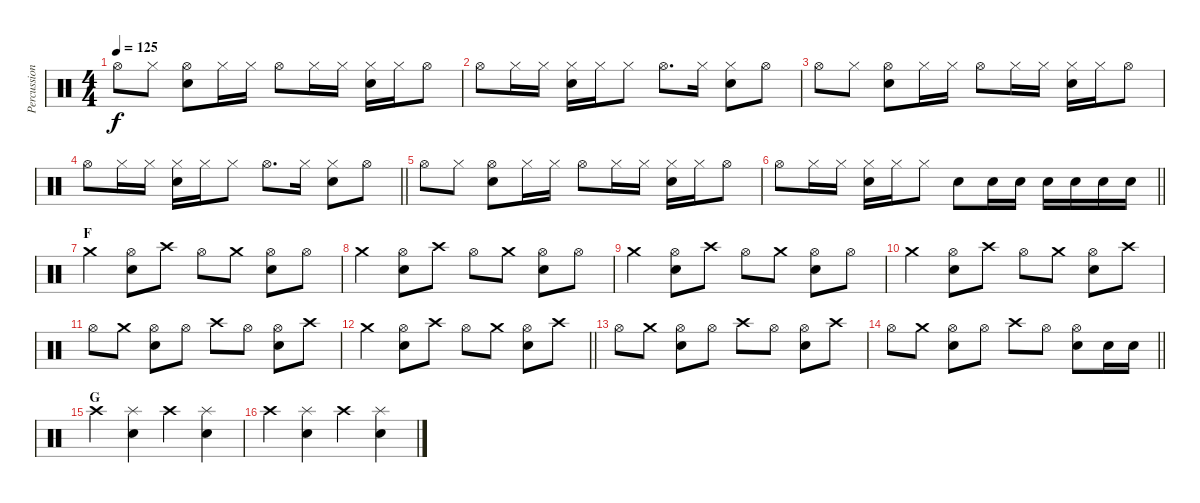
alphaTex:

\track ("Percussion" "Percussion") {instrument percussion}
\staff {score}
\articulation defaults
\ts (4 4)
\tempo 125
\clef neutral
\ks c "Hi-Hat (open)".8{dy f} "Hi-Hat (closed)".8
("Hi-Hat (open)" "Snare (hit) 2").8 "Hi-Hat (closed)".16 "Hi-Hat (closed)".16 "Hi-Hat (open)".8 "Hi-Hat (closed)".16 "Hi-Hat (closed)".16 ("Hi-Hat (closed)" "Snare (hit) 2").16 "Hi-Hat (closed)".16 "Hi-Hat (open)".8 |
"Hi-Hat (open)".8 "Hi-Hat (closed)".16 "Hi-Hat (closed)".16 ("Hi-Hat (closed)" "Snare (hit) 2").16 "Hi-Hat (closed)".16 "Hi-Hat (closed)".8 "Hi-Hat (open)".8{d} "Hi-Hat (closed)".16 ("Hi-Hat (closed)" "Snare (hit) 2").8 "Hi-Hat (open)".8 |
"Hi-Hat (open)".8 "Hi-Hat (closed)".8 ("Hi-Hat (open)" "Snare (hit) 2").8 "Hi-Hat (closed)".16 "Hi-Hat (closed)".16 "Hi-Hat (open)".8 "Hi-Hat (closed)".16 "Hi-Hat (closed)".16 ("Hi-Hat (closed)" "Snare (hit) 2").16 "Hi-Hat (closed)".16 "Hi-Hat (open)".8 |
\barLineRight lightlight "Hi-Hat (open)".8 "Hi-Hat (closed)".16 "Hi-Hat (closed)".16
("Hi-Hat (closed)" "Snare (hit) 2").16 "Hi-Hat (closed)".16 "Hi-Hat (closed)".8 "Hi-Hat (open)".8{d} "Hi-Hat (closed)".16 ("Hi-Hat (closed)" "Snare (hit) 2").8 "Hi-Hat (open)".8 |
"Hi-Hat (open)".8 "Hi-Hat (closed)".8 ("Hi-Hat (open)" "Snare (hit) 2").8 "Hi-Hat (closed)".16 "Hi-Hat (closed)".16 "Hi-Hat (open)".8 "Hi-Hat (closed)".16 "Hi-Hat (closed)".16 ("Hi-Hat (closed)" "Snare (hit) 2").16 "Hi-Hat (closed)".16 "Hi-Hat (open)".8 |
\barLineRight lightlight "Hi-Hat (open)".8 "Hi-Hat (closed)".16 "Hi-Hat (closed)".16
("Hi-Hat (closed)" "Snare (hit) 2").16 "Hi-Hat (closed)".16 "Hi-Hat (closed)".8 "Snare (hit) 2".8 "Snare (hit) 2".16 "Snare (hit) 2".16 "Snare (hit) 2".16 "Snare (hit) 2".16 "Snare (hit) 2".16 "Snare (hit) 2".16 |
\section ("" "F")
"Crash medium (hit)".4 ("Hi-Hat (open)" "Snare (hit) 2").8 "Crash high (hit)".8 "Hi-Hat (open)".8 "Crash medium (hit)".8 ("Hi-Hat (open)" "Snare (hit) 2").8 "Hi-Hat (open)".8 |
"Crash medium (hit)".4 ("Hi-Hat (open)" "Snare (hit) 2").8 "Crash high (hit)".8 "Hi-Hat (open)".8 "Crash medium (hit)".8 ("Hi-Hat (open)" "Snare (hit) 2").8 "Hi-Hat (open)".8 |
"Crash medium (hit)".4 ("Hi-Hat (open)" "Snare (hit) 2").8 "Crash high (hit)".8 "Hi-Hat (open)".8 "Crash medium (hit)".8 ("Hi-Hat (open)" "Snare (hit) 2").8 "Hi-Hat (open)".8 |
"Crash medium (hit)".4 ("Hi-Hat (open)" "Snare (hit) 2").8 "Crash high (hit)".8 "Hi-Hat (open)".8 "Crash medium (hit)".8 ("Hi-Hat (open)" "Snare (hit) 2").8 "Crash high (hit)".8 |
"Hi-Hat (open)".8 "Crash medium (hit)".8 ("Hi-Hat (open)" "Snare (hit) 2").8 "Hi-Hat (open)".8 "Crash high (hit)".8 "Hi-Hat (open)".8 ("Hi-Hat (open)" "Snare (hit) 2").8 "Crash high (hit)".8 |
\barLineRight lightlight "Crash medium (hit)".4
("Hi-Hat (open)" "Snare (hit) 2").8 "Crash high (hit)".8 "Hi-Hat (open)".8 "Crash medium (hit)".8 ("Hi-Hat (open)" "Snare (hit) 2").8 "Crash high (hit)".8 |
"Hi-Hat (open)".8 "Crash medium (hit)".8 ("Hi-Hat (open)" "Snare (hit) 2").8 "Hi-Hat (open)".8 "Crash high (hit)".8 "Hi-Hat (open)".8 ("Hi-Hat (open)" "Snare (hit) 2").8 "Crash high (hit)".8 |
\barLineRight lightlight "Hi-Hat (open)".8 "Crash medium (hit)".8
("Hi-Hat (open)" "Snare (hit) 2").8 "Hi-Hat (open)".8 "Crash high (hit)".8 "Hi-Hat (open)".8 ("Hi-Hat (open)" "Snare (hit) 2").8 "Snare (hit) 2".16 "Snare (hit) 2".16 |
\section ("" "G")
"Crash high (hit)".4 ("Splash (hit)" "Snare (hit) 2").4 "Crash high (hit)".4 ("Splash (hit)" "Snare (hit) 2").4 |
"Crash high (hit)".4 ("Splash (hit)" "Snare (hit) 2").4 "Crash high (hit)".4 ("Splash (hit)" "Snare (hit) 2").4
